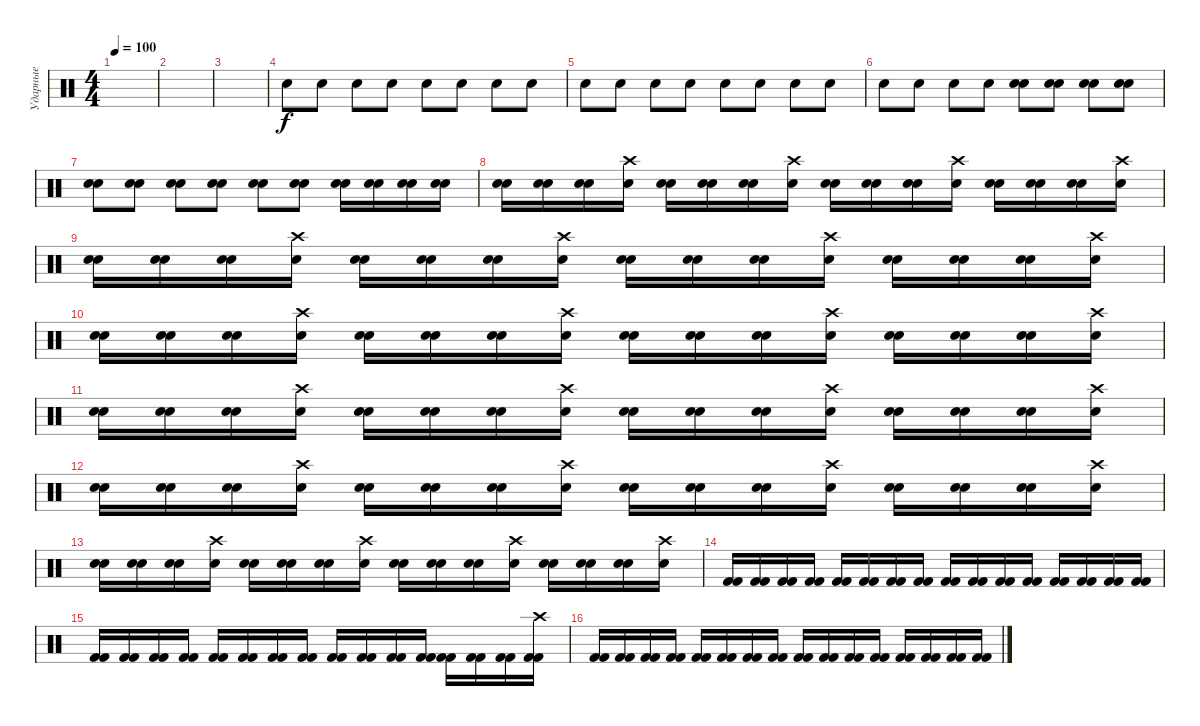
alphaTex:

\track ("Ударные" "Ударные") {instrument percussion}
\staff {score}
\articulation defaults
\ts (4 4)
\tempo 100
\clef neutral
\ks c
|
|
|
"Electric Snare (hit)".8 "Electric Snare (hit)".8 "Electric Snare (hit)".8 "Electric Snare (hit)".8 "Electric Snare (hit)".8 "Electric Snare (hit)".8 "Electric Snare (hit)".8 "Electric Snare (hit)".8 |
"Electric Snare (hit)".8 "Electric Snare (hit)".8 "Electric Snare (hit)".8 "Electric Snare (hit)".8 "Electric Snare (hit)".8 "Electric Snare (hit)".8 "Electric Snare (hit)".8 "Electric Snare (hit)".8 |
"Electric Snare (hit)".8 "Electric Snare (hit)".8 "Electric Snare (hit)".8 "Electric Snare (hit)".8 ("Electric Snare (hit)" "Electric Snare (hit)").8 ("Electric Snare (hit)" "Electric Snare (hit)").8 ("Electric Snare (hit)" "Electric Snare (hit)").8 ("Electric Snare (hit)" "Electric Snare (hit)").8 |
("Electric Snare (hit)" "Electric Snare (hit)").8 ("Electric Snare (hit)" "Electric Snare (hit)").8 ("Electric Snare (hit)" "Electric Snare (hit)").8 ("Electric Snare (hit)" "Electric Snare (hit)").8 ("Electric Snare (hit)" "Electric Snare (hit)").8 ("Electric Snare (hit)" "Electric Snare (hit)").8 ("Electric Snare (hit)" "Electric Snare (hit)").16 ("Electric Snare (hit)" "Electric Snare (hit)").16 ("Electric Snare (hit)" "Electric Snare (hit)").16 ("Electric Snare (hit)" "Electric Snare (hit)").16 |
("Electric Snare (hit)" "Electric Snare (hit)").16 ("Electric Snare (hit)" "Electric Snare (hit)").16 ("Electric Snare (hit)" "Electric Snare (hit)").16 ("Electric Snare (hit)" "Crash high (hit)").16 ("Electric Snare (hit)" "Electric Snare (hit)").16 ("Electric Snare (hit)" "Electric Snare (hit)").16 ("Electric Snare (hit)" "Electric Snare (hit)").16 ("Electric Snare (hit)" "Crash high (hit)").16 ("Electric Snare (hit)" "Electric Snare (hit)").16 ("Electric Snare (hit)" "Electric Snare (hit)").16 ("Electric Snare (hit)" "Electric Snare (hit)").16 ("Electric Snare (hit)" "Crash high (hit)").16 ("Electric Snare (hit)" "Electric Snare (hit)").16 ("Electric Snare (hit)" "Electric Snare (hit)").16 ("Electric Snare (hit)" "Electric Snare (hit)").16 ("Electric Snare (hit)" "Crash high (hit)").16 |
("Electric Snare (hit)" "Electric Snare (hit)").16 ("Electric Snare (hit)" "Electric Snare (hit)").16 ("Electric Snare (hit)" "Electric Snare (hit)").16 ("Electric Snare (hit)" "Crash high (hit)").16 ("Electric Snare (hit)" "Electric Snare (hit)").16 ("Electric Snare (hit)" "Electric Snare (hit)").16 ("Electric Snare (hit)" "Electric Snare (hit)").16 ("Electric Snare (hit)" "Crash high (hit)").16 ("Electric Snare (hit)" "Electric Snare (hit)").16 ("Electric Snare (hit)" "Electric Snare (hit)").16 ("Electric Snare (hit)" "Electric Snare (hit)").16 ("Electric Snare (hit)" "Crash high (hit)").16 ("Electric Snare (hit)" "Electric Snare (hit)").16 ("Electric Snare (hit)" "Electric Snare (hit)").16 ("Electric Snare (hit)" "Electric Snare (hit)").16 ("Electric Snare (hit)" "Crash high (hit)").16 |
("Electric Snare (hit)" "Electric Snare (hit)").16 ("Electric Snare (hit)" "Electric Snare (hit)").16 ("Electric Snare (hit)" "Electric Snare (hit)").16 ("Electric Snare (hit)" "Crash high (hit)").16 ("Electric Snare (hit)" "Electric Snare (hit)").16 ("Electric Snare (hit)" "Electric Snare (hit)").16 ("Electric Snare (hit)" "Electric Snare (hit)").16 ("Electric Snare (hit)" "Crash high (hit)").16 ("Electric Snare (hit)" "Electric Snare (hit)").16 ("Electric Snare (hit)" "Electric Snare (hit)").16 ("Electric Snare (hit)" "Electric Snare (hit)").16 ("Electric Snare (hit)" "Crash high (hit)").16 ("Electric Snare (hit)" "Electric Snare (hit)").16 ("Electric Snare (hit)" "Electric Snare (hit)").16 ("Electric Snare (hit)" "Electric Snare (hit)").16 ("Electric Snare (hit)" "Crash high (hit)").16 |
("Electric Snare (hit)" "Electric Snare (hit)").16 ("Electric Snare (hit)" "Electric Snare (hit)").16 ("Electric Snare (hit)" "Electric Snare (hit)").16 ("Electric Snare (hit)" "Crash high (hit)").16 ("Electric Snare (hit)" "Electric Snare (hit)").16 ("Electric Snare (hit)" "Electric Snare (hit)").16 ("Electric Snare (hit)" "Electric Snare (hit)").16 ("Electric Snare (hit)" "Crash high (hit)").16 ("Electric Snare (hit)" "Electric Snare (hit)").16 ("Electric Snare (hit)" "Electric Snare (hit)").16 ("Electric Snare (hit)" "Electric Snare (hit)").16 ("Electric Snare (hit)" "Crash high (hit)").16 ("Electric Snare (hit)" "Electric Snare (hit)").16 ("Electric Snare (hit)" "Electric Snare (hit)").16 ("Electric Snare (hit)" "Electric Snare (hit)").16 ("Electric Snare (hit)" "Crash high (hit)").16 |
("Electric Snare (hit)" "Electric Snare (hit)").16 ("Electric Snare (hit)" "Electric Snare (hit)").16 ("Electric Snare (hit)" "Electric Snare (hit)").16 ("Electric Snare (hit)" "Crash high (hit)").16 ("Electric Snare (hit)" "Electric Snare (hit)").16 ("Electric Snare (hit)" "Electric Snare (hit)").16 ("Electric Snare (hit)" "Electric Snare (hit)").16 ("Electric Snare (hit)" "Crash high (hit)").16 ("Electric Snare (hit)" "Electric Snare (hit)").16 ("Electric Snare (hit)" "Electric Snare (hit)").16 ("Electric Snare (hit)" "Electric Snare (hit)").16 ("Electric Snare (hit)" "Crash high (hit)").16 ("Electric Snare (hit)" "Electric Snare (hit)").16 ("Electric Snare (hit)" "Electric Snare (hit)").16 ("Electric Snare (hit)" "Electric Snare (hit)").16 ("Electric Snare (hit)" "Crash high (hit)").16 |
("Electric Snare (hit)" "Electric Snare (hit)").16 ("Electric Snare (hit)" "Electric Snare (hit)").16 ("Electric Snare (hit)" "Electric Snare (hit)").16 ("Electric Snare (hit)" "Crash high (hit)").16 ("Electric Snare (hit)" "Electric Snare (hit)").16 ("Electric Snare (hit)" "Electric Snare (hit)").16 ("Electric Snare (hit)" "Electric Snare (hit)").16 ("Electric Snare (hit)" "Crash high (hit)").16 ("Electric Snare (hit)" "Electric Snare (hit)").16 ("Electric Snare (hit)" "Electric Snare (hit)").16 ("Electric Snare (hit)" "Electric Snare (hit)").16 ("Electric Snare (hit)" "Crash high (hit)").16 ("Electric Snare (hit)" "Electric Snare (hit)").16 ("Electric Snare (hit)" "Electric Snare (hit)").16 ("Electric Snare (hit)" "Electric Snare (hit)").16 ("Electric Snare (hit)" "Crash high (hit)").16 |
("Kick (hit) 2" "Kick (hit) 2").16 ("Kick (hit) 2" "Kick (hit) 2").16 ("Kick (hit) 2" "Kick (hit) 2").16 ("Kick (hit) 2" "Kick (hit) 2").16 ("Kick (hit) 2" "Kick (hit) 2").16 ("Kick (hit) 2" "Kick (hit) 2").16 ("Kick (hit) 2" "Kick (hit) 2").16 ("Kick (hit) 2" "Kick (hit) 2").16 ("Kick (hit) 2" "Kick (hit) 2").16 ("Kick (hit) 2" "Kick (hit) 2").16 ("Kick (hit) 2" "Kick (hit) 2").16 ("Kick (hit) 2" "Kick (hit) 2").16 ("Kick (hit) 2" "Kick (hit) 2").16 ("Kick (hit) 2" "Kick (hit) 2").16 ("Kick (hit) 2" "Kick (hit) 2").16 ("Kick (hit) 2" "Kick (hit) 2").16 |
("Kick (hit) 2" "Kick (hit) 2").16 ("Kick (hit) 2" "Kick (hit) 2").16 ("Kick (hit) 2" "Kick (hit) 2").16 ("Kick (hit) 2" "Kick (hit) 2").16 ("Kick (hit) 2" "Kick (hit) 2").16 ("Kick (hit) 2" "Kick (hit) 2").16 ("Kick (hit) 2" "Kick (hit) 2").16 ("Kick (hit) 2" "Kick (hit) 2").16 ("Kick (hit) 2" "Kick (hit) 2").16 ("Kick (hit) 2" "Kick (hit) 2").16 ("Kick (hit) 2" "Kick (hit) 2").16 ("Kick (hit) 2" "Kick (hit) 2").16 ("Kick (hit) 2" "Kick (hit) 2").16 ("Kick (hit) 2" "Kick (hit) 2").16 ("Kick (hit) 2" "Kick (hit) 2").16 ("Kick (hit) 2" "Kick (hit) 2" "Crash high (hit)").16 |
("Kick (hit) 2" "Kick (hit) 2").16 ("Kick (hit) 2" "Kick (hit) 2").16 ("Kick (hit) 2" "Kick (hit) 2").16 ("Kick (hit) 2" "Kick (hit) 2").16 ("Kick (hit) 2" "Kick (hit) 2").16 ("Kick (hit) 2" "Kick (hit) 2").16 ("Kick (hit) 2" "Kick (hit) 2").16 ("Kick (hit) 2" "Kick (hit) 2").16 ("Kick (hit) 2" "Kick (hit) 2").16 ("Kick (hit) 2" "Kick (hit) 2").16 ("Kick (hit) 2" "Kick (hit) 2").16 ("Kick (hit) 2" "Kick (hit) 2").16 ("Kick (hit) 2" "Kick (hit) 2").16 ("Kick (hit) 2" "Kick (hit) 2").16 ("Kick (hit) 2" "Kick (hit) 2").16 ("Kick (hit) 2" "Kick (hit) 2").16
